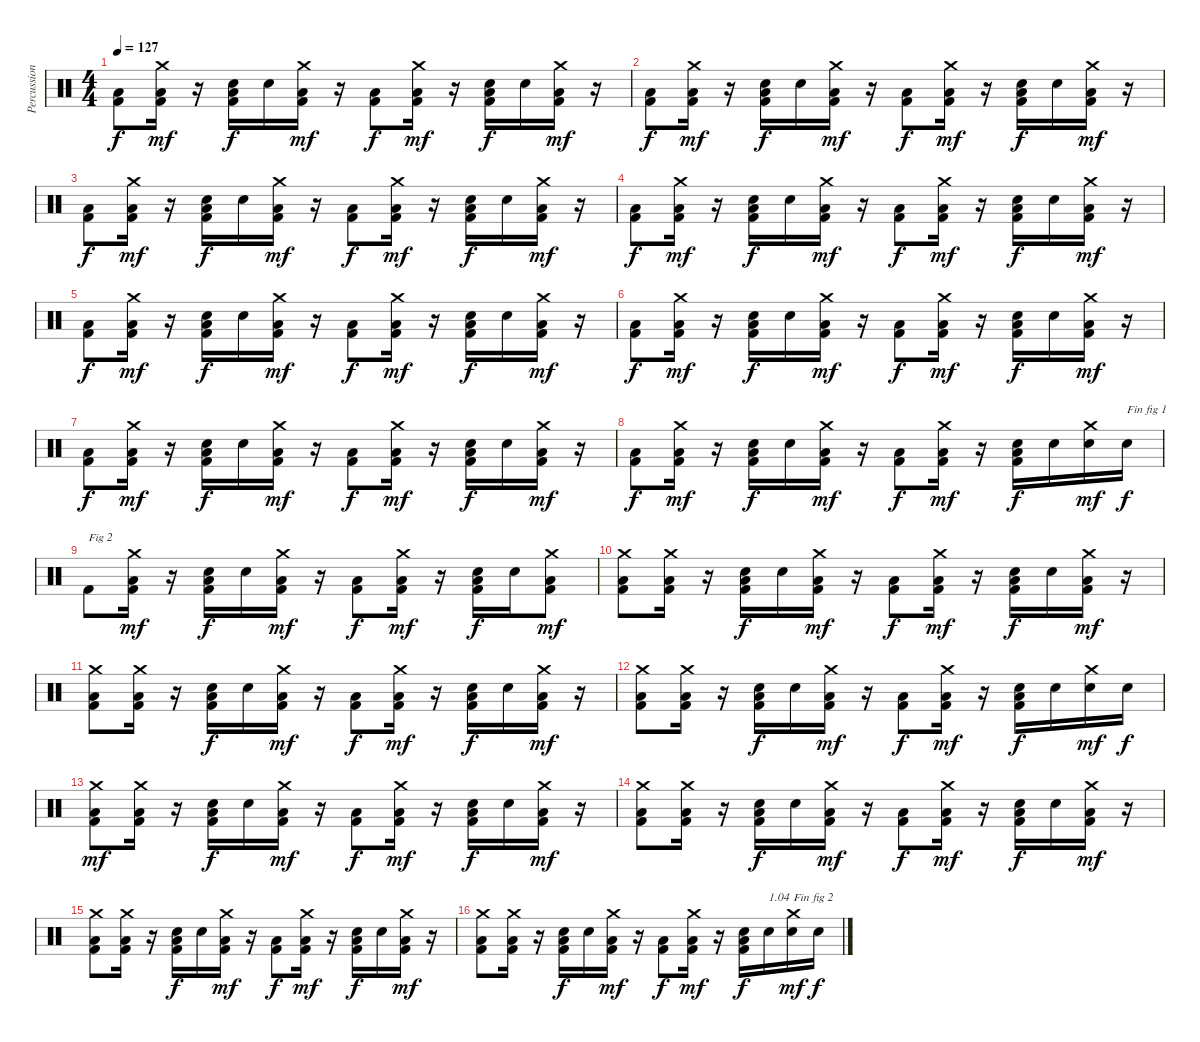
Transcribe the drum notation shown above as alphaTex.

\track ("Percussions" "Percussion") {instrument percussion}
\staff {score}
\articulation defaults
\ts (4 4)
\tempo 127
\clef neutral
\ks c
("Low Floor Tom (hit)" "Kick (hit) 2").8{dy f} ("Low Floor Tom (hit)" "Kick (hit) 2" "Crash medium (hit)").16{dy mf} r.16 ("Low Floor Tom (hit)" "Kick (hit) 2" "Electric Snare (hit)").16{dy f} "Electric Snare (hit)".16 ("Low Floor Tom (hit)" "Kick (hit) 2" "Crash medium (hit)").16{dy mf} r.16 ("Low Floor Tom (hit)" "Kick (hit) 2").8{dy f} ("Low Floor Tom (hit)" "Kick (hit) 2" "Crash medium (hit)").16{dy mf} r.16 ("Low Floor Tom (hit)" "Kick (hit) 2" "Electric Snare (hit)").16{dy f} "Electric Snare (hit)".16 ("Low Floor Tom (hit)" "Kick (hit) 2" "Crash medium (hit)").16{dy mf} r.16 |
("Low Floor Tom (hit)" "Kick (hit) 2").8{dy f} ("Low Floor Tom (hit)" "Kick (hit) 2" "Crash medium (hit)").16{dy mf} r.16 ("Low Floor Tom (hit)" "Kick (hit) 2" "Electric Snare (hit)").16{dy f} "Electric Snare (hit)".16 ("Low Floor Tom (hit)" "Kick (hit) 2" "Crash medium (hit)").16{dy mf} r.16 ("Low Floor Tom (hit)" "Kick (hit) 2").8{dy f} ("Low Floor Tom (hit)" "Kick (hit) 2" "Crash medium (hit)").16{dy mf} r.16 ("Low Floor Tom (hit)" "Kick (hit) 2" "Electric Snare (hit)").16{dy f} "Electric Snare (hit)".16 ("Low Floor Tom (hit)" "Kick (hit) 2" "Crash medium (hit)").16{dy mf} r.16 |
("Low Floor Tom (hit)" "Kick (hit) 2").8{dy f} ("Low Floor Tom (hit)" "Kick (hit) 2" "Crash medium (hit)").16{dy mf} r.16 ("Low Floor Tom (hit)" "Kick (hit) 2" "Electric Snare (hit)").16{dy f} "Electric Snare (hit)".16 ("Low Floor Tom (hit)" "Kick (hit) 2" "Crash medium (hit)").16{dy mf} r.16 ("Low Floor Tom (hit)" "Kick (hit) 2").8{dy f} ("Low Floor Tom (hit)" "Kick (hit) 2" "Crash medium (hit)").16{dy mf} r.16 ("Low Floor Tom (hit)" "Kick (hit) 2" "Electric Snare (hit)").16{dy f} "Electric Snare (hit)".16 ("Low Floor Tom (hit)" "Kick (hit) 2" "Crash medium (hit)").16{dy mf} r.16 |
("Low Floor Tom (hit)" "Kick (hit) 2").8{dy f} ("Low Floor Tom (hit)" "Kick (hit) 2" "Crash medium (hit)").16{dy mf} r.16 ("Low Floor Tom (hit)" "Kick (hit) 2" "Electric Snare (hit)").16{dy f} "Electric Snare (hit)".16 ("Low Floor Tom (hit)" "Kick (hit) 2" "Crash medium (hit)").16{dy mf} r.16 ("Low Floor Tom (hit)" "Kick (hit) 2").8{dy f} ("Low Floor Tom (hit)" "Kick (hit) 2" "Crash medium (hit)").16{dy mf} r.16 ("Low Floor Tom (hit)" "Kick (hit) 2" "Electric Snare (hit)").16{dy f} "Electric Snare (hit)".16 ("Low Floor Tom (hit)" "Kick (hit) 2" "Crash medium (hit)").16{dy mf} r.16 |
("Low Floor Tom (hit)" "Kick (hit) 2").8{dy f} ("Low Floor Tom (hit)" "Kick (hit) 2" "Crash medium (hit)").16{dy mf} r.16 ("Low Floor Tom (hit)" "Kick (hit) 2" "Electric Snare (hit)").16{dy f} "Electric Snare (hit)".16 ("Low Floor Tom (hit)" "Kick (hit) 2" "Crash medium (hit)").16{dy mf} r.16 ("Low Floor Tom (hit)" "Kick (hit) 2").8{dy f} ("Low Floor Tom (hit)" "Kick (hit) 2" "Crash medium (hit)").16{dy mf} r.16 ("Low Floor Tom (hit)" "Kick (hit) 2" "Electric Snare (hit)").16{dy f} "Electric Snare (hit)".16 ("Low Floor Tom (hit)" "Kick (hit) 2" "Crash medium (hit)").16{dy mf} r.16 |
("Low Floor Tom (hit)" "Kick (hit) 2").8{dy f} ("Low Floor Tom (hit)" "Kick (hit) 2" "Crash medium (hit)").16{dy mf} r.16 ("Low Floor Tom (hit)" "Kick (hit) 2" "Electric Snare (hit)").16{dy f} "Electric Snare (hit)".16 ("Low Floor Tom (hit)" "Kick (hit) 2" "Crash medium (hit)").16{dy mf} r.16 ("Low Floor Tom (hit)" "Kick (hit) 2").8{dy f} ("Low Floor Tom (hit)" "Kick (hit) 2" "Crash medium (hit)").16{dy mf} r.16 ("Low Floor Tom (hit)" "Kick (hit) 2" "Electric Snare (hit)").16{dy f} "Electric Snare (hit)".16 ("Low Floor Tom (hit)" "Kick (hit) 2" "Crash medium (hit)").16{dy mf} r.16 |
("Low Floor Tom (hit)" "Kick (hit) 2").8{dy f} ("Low Floor Tom (hit)" "Kick (hit) 2" "Crash medium (hit)").16{dy mf} r.16 ("Low Floor Tom (hit)" "Kick (hit) 2" "Electric Snare (hit)").16{dy f} "Electric Snare (hit)".16 ("Low Floor Tom (hit)" "Kick (hit) 2" "Crash medium (hit)").16{dy mf} r.16 ("Low Floor Tom (hit)" "Kick (hit) 2").8{dy f} ("Low Floor Tom (hit)" "Kick (hit) 2" "Crash medium (hit)").16{dy mf} r.16 ("Low Floor Tom (hit)" "Kick (hit) 2" "Electric Snare (hit)").16{dy f} "Electric Snare (hit)".16 ("Low Floor Tom (hit)" "Kick (hit) 2" "Crash medium (hit)").16{dy mf} r.16 |
("Low Floor Tom (hit)" "Kick (hit) 2").8{dy f} ("Low Floor Tom (hit)" "Kick (hit) 2" "Crash medium (hit)").16{dy mf} r.16 ("Low Floor Tom (hit)" "Kick (hit) 2" "Electric Snare (hit)").16{dy f} "Electric Snare (hit)".16 ("Low Floor Tom (hit)" "Kick (hit) 2" "Crash medium (hit)").16{dy mf} r.16 ("Low Floor Tom (hit)" "Kick (hit) 2").8{dy f} ("Low Floor Tom (hit)" "Kick (hit) 2" "Crash medium (hit)").16{dy mf} r.16 ("Low Floor Tom (hit)" "Kick (hit) 2" "Electric Snare (hit)").16{dy f} "Electric Snare (hit)".16 ("Electric Snare (hit)" "Crash medium (hit)").16{dy mf} "Electric Snare (hit)".16{txt "Fin fig 1" dy f} |
"Kick (hit) 2".8{txt "Fig 2"} ("Low Floor Tom (hit)" "Kick (hit) 2" "Crash medium (hit)").16{dy mf} r.16 ("Low Floor Tom (hit)" "Kick (hit) 2" "Electric Snare (hit)").16{dy f} "Electric Snare (hit)".16 ("Low Floor Tom (hit)" "Kick (hit) 2" "Crash medium (hit)").16{dy mf} r.16 ("Low Floor Tom (hit)" "Kick (hit) 2").8{dy f} ("Low Floor Tom (hit)" "Kick (hit) 2" "Crash medium (hit)").16{dy mf} r.16 ("Low Floor Tom (hit)" "Kick (hit) 2" "Electric Snare (hit)").16{dy f} "Electric Snare (hit)".16 ("Low Floor Tom (hit)" "Kick (hit) 2" "Crash medium (hit)").8{dy mf} |
("Low Floor Tom (hit)" "Kick (hit) 2" "Crash medium (hit)").8 ("Low Floor Tom (hit)" "Kick (hit) 2" "Crash medium (hit)").16 r.16 ("Low Floor Tom (hit)" "Kick (hit) 2" "Electric Snare (hit)").16{dy f} "Electric Snare (hit)".16 ("Low Floor Tom (hit)" "Kick (hit) 2" "Crash medium (hit)").16{dy mf} r.16 ("Low Floor Tom (hit)" "Kick (hit) 2").8{dy f} ("Low Floor Tom (hit)" "Kick (hit) 2" "Crash medium (hit)").16{dy mf} r.16 ("Low Floor Tom (hit)" "Kick (hit) 2" "Electric Snare (hit)").16{dy f} "Electric Snare (hit)".16 ("Low Floor Tom (hit)" "Kick (hit) 2" "Crash medium (hit)").16{dy mf} r.16 |
("Low Floor Tom (hit)" "Kick (hit) 2" "Crash medium (hit)").8 ("Low Floor Tom (hit)" "Kick (hit) 2" "Crash medium (hit)").16 r.16 ("Low Floor Tom (hit)" "Kick (hit) 2" "Electric Snare (hit)").16{dy f} "Electric Snare (hit)".16 ("Low Floor Tom (hit)" "Kick (hit) 2" "Crash medium (hit)").16{dy mf} r.16 ("Low Floor Tom (hit)" "Kick (hit) 2").8{dy f} ("Low Floor Tom (hit)" "Kick (hit) 2" "Crash medium (hit)").16{dy mf} r.16 ("Low Floor Tom (hit)" "Kick (hit) 2" "Electric Snare (hit)").16{dy f} "Electric Snare (hit)".16 ("Low Floor Tom (hit)" "Kick (hit) 2" "Crash medium (hit)").16{dy mf} r.16 |
("Low Floor Tom (hit)" "Kick (hit) 2" "Crash medium (hit)").8 ("Low Floor Tom (hit)" "Kick (hit) 2" "Crash medium (hit)").16 r.16 ("Low Floor Tom (hit)" "Kick (hit) 2" "Electric Snare (hit)").16{dy f} "Electric Snare (hit)".16 ("Low Floor Tom (hit)" "Kick (hit) 2" "Crash medium (hit)").16{dy mf} r.16 ("Low Floor Tom (hit)" "Kick (hit) 2").8{dy f} ("Low Floor Tom (hit)" "Kick (hit) 2" "Crash medium (hit)").16{dy mf} r.16 ("Low Floor Tom (hit)" "Kick (hit) 2" "Electric Snare (hit)").16{dy f} "Electric Snare (hit)".16 ("Electric Snare (hit)" "Crash medium (hit)").16{dy mf} "Electric Snare (hit)".16{dy f} |
("Low Floor Tom (hit)" "Kick (hit) 2" "Crash medium (hit)").8{dy mf} ("Low Floor Tom (hit)" "Kick (hit) 2" "Crash medium (hit)").16 r.16 ("Low Floor Tom (hit)" "Kick (hit) 2" "Electric Snare (hit)").16{dy f} "Electric Snare (hit)".16 ("Low Floor Tom (hit)" "Kick (hit) 2" "Crash medium (hit)").16{dy mf} r.16 ("Low Floor Tom (hit)" "Kick (hit) 2").8{dy f} ("Low Floor Tom (hit)" "Kick (hit) 2" "Crash medium (hit)").16{dy mf} r.16 ("Low Floor Tom (hit)" "Kick (hit) 2" "Electric Snare (hit)").16{dy f} "Electric Snare (hit)".16 ("Low Floor Tom (hit)" "Kick (hit) 2" "Crash medium (hit)").16{dy mf} r.16 |
("Low Floor Tom (hit)" "Kick (hit) 2" "Crash medium (hit)").8 ("Low Floor Tom (hit)" "Kick (hit) 2" "Crash medium (hit)").16 r.16 ("Low Floor Tom (hit)" "Kick (hit) 2" "Electric Snare (hit)").16{dy f} "Electric Snare (hit)".16 ("Low Floor Tom (hit)" "Kick (hit) 2" "Crash medium (hit)").16{dy mf} r.16 ("Low Floor Tom (hit)" "Kick (hit) 2").8{dy f} ("Low Floor Tom (hit)" "Kick (hit) 2" "Crash medium (hit)").16{dy mf} r.16 ("Low Floor Tom (hit)" "Kick (hit) 2" "Electric Snare (hit)").16{dy f} "Electric Snare (hit)".16 ("Low Floor Tom (hit)" "Kick (hit) 2" "Crash medium (hit)").16{dy mf} r.16 |
("Low Floor Tom (hit)" "Kick (hit) 2" "Crash medium (hit)").8 ("Low Floor Tom (hit)" "Kick (hit) 2" "Crash medium (hit)").16 r.16 ("Low Floor Tom (hit)" "Kick (hit) 2" "Electric Snare (hit)").16{dy f} "Electric Snare (hit)".16 ("Low Floor Tom (hit)" "Kick (hit) 2" "Crash medium (hit)").16{dy mf} r.16 ("Low Floor Tom (hit)" "Kick (hit) 2").8{dy f} ("Low Floor Tom (hit)" "Kick (hit) 2" "Crash medium (hit)").16{dy mf} r.16 ("Low Floor Tom (hit)" "Kick (hit) 2" "Electric Snare (hit)").16{dy f} "Electric Snare (hit)".16 ("Low Floor Tom (hit)" "Kick (hit) 2" "Crash medium (hit)").16{dy mf} r.16 |
("Low Floor Tom (hit)" "Kick (hit) 2" "Crash medium (hit)").8 ("Low Floor Tom (hit)" "Kick (hit) 2" "Crash medium (hit)").16 r.16 ("Low Floor Tom (hit)" "Kick (hit) 2" "Electric Snare (hit)").16{dy f} "Electric Snare (hit)".16 ("Low Floor Tom (hit)" "Kick (hit) 2" "Crash medium (hit)").16{dy mf} r.16 ("Low Floor Tom (hit)" "Kick (hit) 2").8{dy f} ("Low Floor Tom (hit)" "Kick (hit) 2" "Crash medium (hit)").16{dy mf} r.16 ("Low Floor Tom (hit)" "Kick (hit) 2" "Electric Snare (hit)").16{dy f} "Electric Snare (hit)".16{txt "1.04"} ("Electric Snare (hit)" "Crash medium (hit)").16{txt "Fin fig 2" dy mf} "Electric Snare (hit)".16{dy f}
